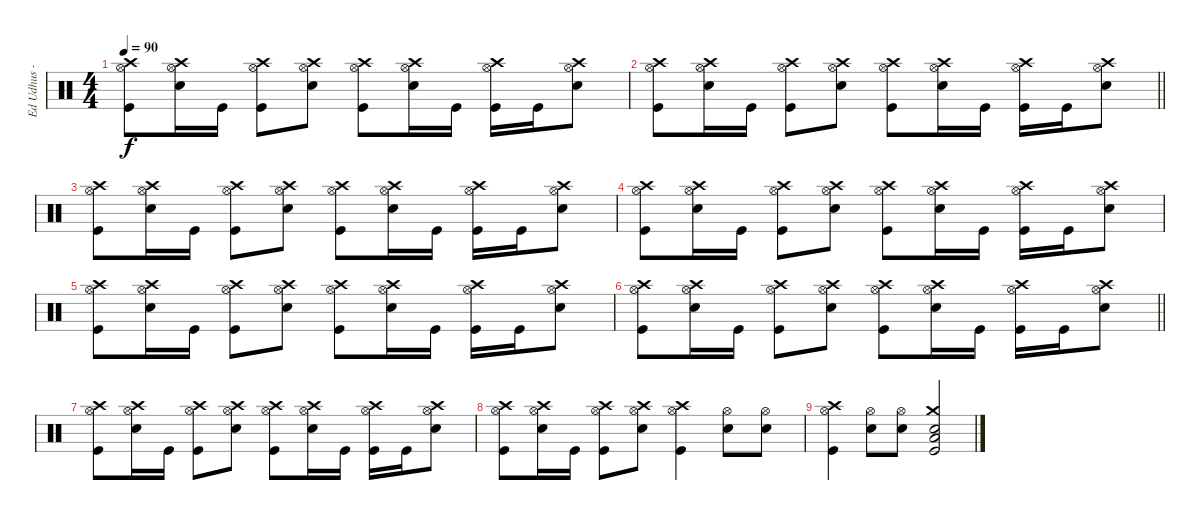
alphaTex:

\track ("Ed Udhus - Drums" "Ed Udhus -") {instrument percussion}
\staff {score}
\articulation defaults
\ts (4 4)
\tempo 90
\clef neutral
\ks c
("Crash high (hit)" "Hi-Hat (open)" "Kick (hit)").8{dy f} ("Crash high (hit)" "Hi-Hat (open)" "Electric Snare (hit)").16 "Kick (hit)".16 ("Crash high (hit)" "Hi-Hat (open)" "Kick (hit)").8 ("Crash high (hit)" "Hi-Hat (open)" "Electric Snare (hit)").8 ("Crash high (hit)" "Hi-Hat (open)" "Kick (hit)").8 ("Crash high (hit)" "Hi-Hat (open)" "Electric Snare (hit)").16 "Kick (hit)".16 ("Crash high (hit)" "Hi-Hat (open)" "Kick (hit)").16 "Kick (hit)".16 ("Crash high (hit)" "Hi-Hat (open)" "Electric Snare (hit)").8 |
\barLineRight lightlight
("Crash high (hit)" "Hi-Hat (open)" "Kick (hit)").8 ("Crash high (hit)" "Hi-Hat (open)" "Electric Snare (hit)").16 "Kick (hit)".16 ("Crash high (hit)" "Hi-Hat (open)" "Kick (hit)").8 ("Crash high (hit)" "Hi-Hat (open)" "Electric Snare (hit)").8 ("Crash high (hit)" "Hi-Hat (open)" "Kick (hit)").8 ("Crash high (hit)" "Hi-Hat (open)" "Electric Snare (hit)").16 "Kick (hit)".16 ("Crash high (hit)" "Hi-Hat (open)" "Kick (hit)").16 "Kick (hit)".16 ("Crash high (hit)" "Hi-Hat (open)" "Electric Snare (hit)").8 |
("Crash high (hit)" "Hi-Hat (open)" "Kick (hit)").8 ("Crash high (hit)" "Hi-Hat (open)" "Electric Snare (hit)").16 "Kick (hit)".16 ("Crash high (hit)" "Hi-Hat (open)" "Kick (hit)").8 ("Crash high (hit)" "Hi-Hat (open)" "Electric Snare (hit)").8 ("Crash high (hit)" "Hi-Hat (open)" "Kick (hit)").8 ("Crash high (hit)" "Hi-Hat (open)" "Electric Snare (hit)").16 "Kick (hit)".16 ("Crash high (hit)" "Hi-Hat (open)" "Kick (hit)").16 "Kick (hit)".16 ("Crash high (hit)" "Hi-Hat (open)" "Electric Snare (hit)").8 |
("Crash high (hit)" "Hi-Hat (open)" "Kick (hit)").8 ("Crash high (hit)" "Hi-Hat (open)" "Electric Snare (hit)").16 "Kick (hit)".16 ("Crash high (hit)" "Hi-Hat (open)" "Kick (hit)").8 ("Crash high (hit)" "Hi-Hat (open)" "Electric Snare (hit)").8 ("Crash high (hit)" "Hi-Hat (open)" "Kick (hit)").8 ("Crash high (hit)" "Hi-Hat (open)" "Electric Snare (hit)").16 "Kick (hit)".16 ("Crash high (hit)" "Hi-Hat (open)" "Kick (hit)").16 "Kick (hit)".16 ("Crash high (hit)" "Hi-Hat (open)" "Electric Snare (hit)").8 |
("Crash high (hit)" "Hi-Hat (open)" "Kick (hit)").8 ("Crash high (hit)" "Hi-Hat (open)" "Electric Snare (hit)").16 "Kick (hit)".16 ("Crash high (hit)" "Hi-Hat (open)" "Kick (hit)").8 ("Crash high (hit)" "Hi-Hat (open)" "Electric Snare (hit)").8 ("Crash high (hit)" "Hi-Hat (open)" "Kick (hit)").8 ("Crash high (hit)" "Hi-Hat (open)" "Electric Snare (hit)").16 "Kick (hit)".16 ("Crash high (hit)" "Hi-Hat (open)" "Kick (hit)").16 "Kick (hit)".16 ("Crash high (hit)" "Hi-Hat (open)" "Electric Snare (hit)").8 |
\barLineRight lightlight
("Crash high (hit)" "Hi-Hat (open)" "Kick (hit)").8 ("Crash high (hit)" "Hi-Hat (open)" "Electric Snare (hit)").16 "Kick (hit)".16 ("Crash high (hit)" "Hi-Hat (open)" "Kick (hit)").8 ("Crash high (hit)" "Hi-Hat (open)" "Electric Snare (hit)").8 ("Crash high (hit)" "Hi-Hat (open)" "Kick (hit)").8 ("Crash high (hit)" "Hi-Hat (open)" "Electric Snare (hit)").16 "Kick (hit)".16 ("Crash high (hit)" "Hi-Hat (open)" "Kick (hit)").16 "Kick (hit)".16 ("Crash high (hit)" "Hi-Hat (open)" "Electric Snare (hit)").8 |
("Crash high (hit)" "Hi-Hat (open)" "Kick (hit)").8 ("Crash high (hit)" "Hi-Hat (open)" "Electric Snare (hit)").16 "Kick (hit)".16 ("Crash high (hit)" "Hi-Hat (open)" "Kick (hit)").8 ("Crash high (hit)" "Hi-Hat (open)" "Electric Snare (hit)").8 ("Crash high (hit)" "Hi-Hat (open)" "Kick (hit)").8 ("Crash high (hit)" "Hi-Hat (open)" "Electric Snare (hit)").16 "Kick (hit)".16 ("Crash high (hit)" "Hi-Hat (open)" "Kick (hit)").16 "Kick (hit)".16 ("Crash high (hit)" "Hi-Hat (open)" "Electric Snare (hit)").8 |
("Crash high (hit)" "Hi-Hat (open)" "Kick (hit)").8 ("Crash high (hit)" "Hi-Hat (open)" "Electric Snare (hit)").16 "Kick (hit)".16 ("Crash high (hit)" "Hi-Hat (open)" "Kick (hit)").8 ("Crash high (hit)" "Hi-Hat (open)" "Electric Snare (hit)").8 ("Crash high (hit)" "Hi-Hat (open)" "Kick (hit)").4 ("Hi-Hat (open)" "Electric Snare (hit)").8 ("Hi-Hat (open)" "Electric Snare (hit)").8 |
("Crash high (hit)" "Hi-Hat (open)" "Kick (hit)").4 ("Hi-Hat (open)" "Electric Snare (hit)").8 ("Hi-Hat (open)" "Electric Snare (hit)").8 ("Crash medium (hit)" "Low Tom (hit)" "Electric Snare (hit)" "Kick (hit)").2
